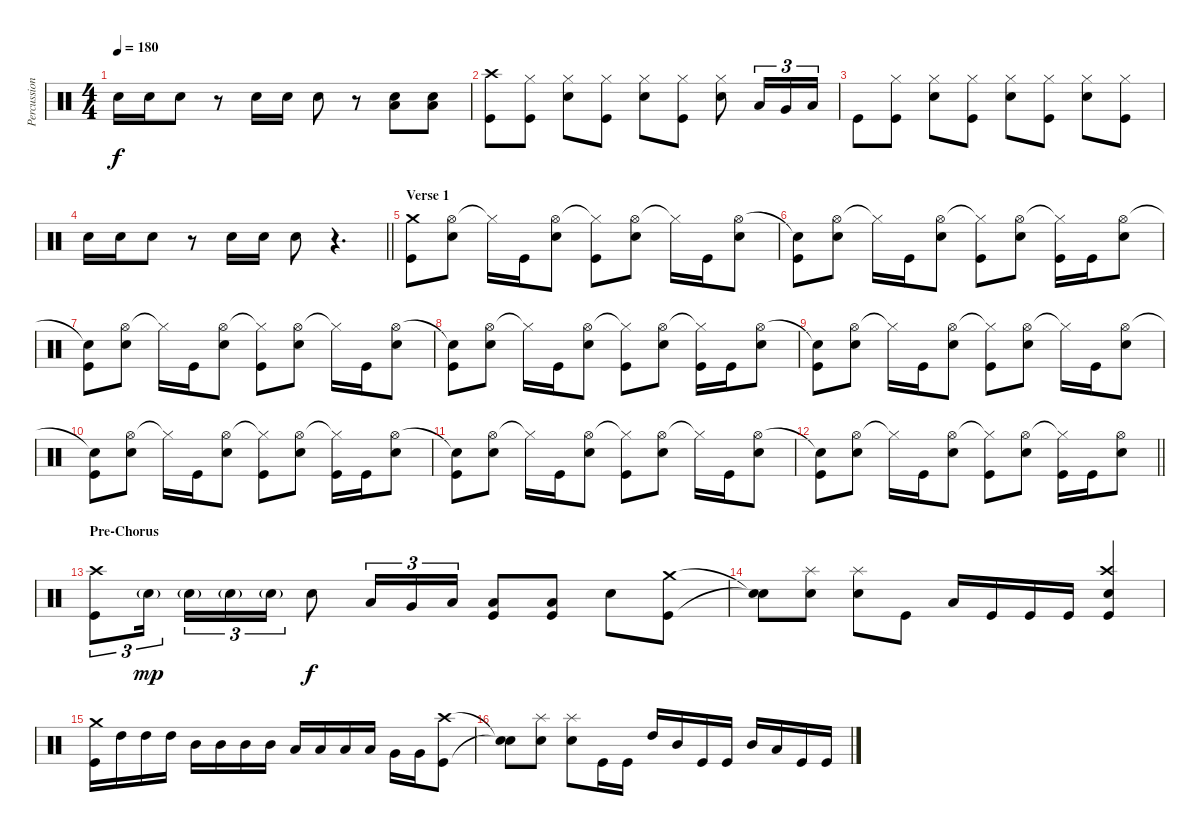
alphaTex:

\track ("Percussion" "Percussion") {instrument percussion}
\staff {score}
\articulation defaults
\ts (4 4)
\tempo 180
\clef neutral
\ks c "Electric Snare (hit)".16{dy f} "Electric Snare (hit)".16 "Electric Snare (hit)".8
r.8 "Electric Snare (hit)".16 "Electric Snare (hit)".16 "Electric Snare (hit)".8 r.8 ("Low Floor Tom (hit)" "Electric Snare (hit)").8 ("Low Floor Tom (hit)" "Electric Snare (hit)").8 |
("Crash high (hit)" "Kick (hit)").8 ("Hi-Hat (closed)" "Kick (hit)").8 ("Hi-Hat (closed)" "Electric Snare (hit)").8 ("Hi-Hat (closed)" "Kick (hit)").8 ("Hi-Hat (closed)" "Electric Snare (hit)").8 ("Hi-Hat (closed)" "Kick (hit)").8 ("Hi-Hat (closed)" "Electric Snare (hit)").8 "Low Tom (hit)".16{tu (3 2)} "Very Low Tom (hit)".16{tu (3 2)} "Low Floor Tom (hit)".16{tu (3 2)} |
"Kick (hit)".8 ("Hi-Hat (closed)" "Kick (hit)").8 ("Hi-Hat (closed)" "Electric Snare (hit)").8 ("Hi-Hat (closed)" "Kick (hit)").8 ("Hi-Hat (closed)" "Electric Snare (hit)").8 ("Hi-Hat (closed)" "Kick (hit)").8 ("Hi-Hat (closed)" "Electric Snare (hit)").8 ("Hi-Hat (closed)" "Kick (hit)").8 |
\barLineRight lightlight "Electric Snare (hit)".16 "Electric Snare (hit)".16 "Electric Snare (hit)".8
r.8 "Electric Snare (hit)".16 "Electric Snare (hit)".16 "Electric Snare (hit)".8 r.4{d} |
\section ("" "Verse 1")
("Crash medium (hit)" "Kick (hit)").8 ("Hi-Hat (open)" "Electric Snare (hit)").8 "Hi-Hat (closed)"{t}.16 "Kick (hit)".16 ("Hi-Hat (open)" "Electric Snare (hit)").8 ("Hi-Hat (closed)"{t} "Kick (hit)").8 ("Hi-Hat (open)" "Electric Snare (hit)").8 "Hi-Hat (closed)"{t}.16 "Kick (hit)".16 ("Hi-Hat (open)" "Electric Snare (hit)").8 |
("Snare (hit)"{t} "Kick (hit)").8 ("Hi-Hat (open)" "Electric Snare (hit)").8 "Hi-Hat (closed)"{t}.16 "Kick (hit)".16 ("Hi-Hat (open)" "Electric Snare (hit)").8 ("Hi-Hat (closed)"{t} "Kick (hit)").8 ("Hi-Hat (open)" "Electric Snare (hit)").8 ("Hi-Hat (closed)"{t} "Kick (hit)").16 "Kick (hit)".16 ("Hi-Hat (open)" "Electric Snare (hit)").8 |
("Snare (hit)"{t} "Kick (hit)").8 ("Hi-Hat (open)" "Electric Snare (hit)").8 "Hi-Hat (closed)"{t}.16 "Kick (hit)".16 ("Hi-Hat (open)" "Electric Snare (hit)").8 ("Hi-Hat (closed)"{t} "Kick (hit)").8 ("Hi-Hat (open)" "Electric Snare (hit)").8 "Hi-Hat (closed)"{t}.16 "Kick (hit)".16 ("Hi-Hat (open)" "Electric Snare (hit)").8 |
("Snare (hit)"{t} "Kick (hit)").8 ("Hi-Hat (open)" "Electric Snare (hit)").8 "Hi-Hat (closed)"{t}.16 "Kick (hit)".16 ("Hi-Hat (open)" "Electric Snare (hit)").8 ("Hi-Hat (closed)"{t} "Kick (hit)").8 ("Hi-Hat (open)" "Electric Snare (hit)").8 ("Hi-Hat (closed)"{t} "Kick (hit)").16 "Kick (hit)".16 ("Hi-Hat (open)" "Electric Snare (hit)").8 |
("Snare (hit)"{t} "Kick (hit)").8 ("Hi-Hat (open)" "Electric Snare (hit)").8 "Hi-Hat (closed)"{t}.16 "Kick (hit)".16 ("Hi-Hat (open)" "Electric Snare (hit)").8 ("Hi-Hat (closed)"{t} "Kick (hit)").8 ("Hi-Hat (open)" "Electric Snare (hit)").8 "Hi-Hat (closed)"{t}.16 "Kick (hit)".16 ("Hi-Hat (open)" "Electric Snare (hit)").8 |
("Snare (hit)"{t} "Kick (hit)").8 ("Hi-Hat (open)" "Electric Snare (hit)").8 "Hi-Hat (closed)"{t}.16 "Kick (hit)".16 ("Hi-Hat (open)" "Electric Snare (hit)").8 ("Hi-Hat (closed)"{t} "Kick (hit)").8 ("Hi-Hat (open)" "Electric Snare (hit)").8 ("Hi-Hat (closed)"{t} "Kick (hit)").16 "Kick (hit)".16 ("Hi-Hat (open)" "Electric Snare (hit)").8 |
("Snare (hit)"{t} "Kick (hit)").8 ("Hi-Hat (open)" "Electric Snare (hit)").8 "Hi-Hat (closed)"{t}.16 "Kick (hit)".16 ("Hi-Hat (open)" "Electric Snare (hit)").8 ("Hi-Hat (closed)"{t} "Kick (hit)").8 ("Hi-Hat (open)" "Electric Snare (hit)").8 "Hi-Hat (closed)"{t}.16 "Kick (hit)".16 ("Hi-Hat (open)" "Electric Snare (hit)").8 |
\barLineRight lightlight
("Snare (hit)"{t} "Kick (hit)").8 ("Hi-Hat (open)" "Electric Snare (hit)").8 "Hi-Hat (closed)"{t}.16 "Kick (hit)".16 ("Hi-Hat (open)" "Electric Snare (hit)").8 ("Hi-Hat (closed)"{t} "Kick (hit)").8 ("Hi-Hat (open)" "Electric Snare (hit)").8 ("Hi-Hat (closed)"{t} "Kick (hit)").16 "Kick (hit)".16 ("Hi-Hat (open)" "Electric Snare (hit)").8 |
\section ("" "Pre-Chorus")
("Crash high (hit)" "Kick (hit)").8{tu (3 2)} "Electric Snare (hit)"{g}.16{tu (3 2) dy mp beam splitsecondary} "Electric Snare (hit)"{g}.16{tu (3 2)} "Electric Snare (hit)"{g}.16{tu (3 2)} "Electric Snare (hit)"{g}.16{tu (3 2)} "Electric Snare (hit)".8{dy f} "Low Tom (hit)".16{tu (3 2)} "Very Low Tom (hit)".16{tu (3 2)} "Low Floor Tom (hit)".16{tu (3 2)} ("Low Floor Tom (hit)" "Kick (hit)").8 ("Low Floor Tom (hit)" "Kick (hit)").8 "Electric Snare (hit)".8 ("Crash medium (hit)" "Kick (hit)").8 |
("Snare (hit)"{t} "Snare (hit)"{t}).8 ("Splash (hit)" "Electric Snare (hit)").8 ("Splash (hit)" "Electric Snare (hit)").8 "Kick (hit)".8 "Low Floor Tom (hit)".16 "Kick (hit)".16 "Kick (hit)".16 "Kick (hit)".16 ("Crash high (hit)" "Electric Snare (hit)" "Kick (hit)").4 |
("Crash medium (hit)" "Kick (hit)").16 "High Tom (hit)".16 "High Tom (hit)".16 "High Tom (hit)".16 "Mid Tom (hit)".16 "Mid Tom (hit)".16 "Mid Tom (hit)".16 "Mid Tom (hit)".16 "Low Tom (hit)".16 "Low Tom (hit)".16 "Low Tom (hit)".16 "Low Tom (hit)".16 "Very Low Tom (hit)".16 "Very Low Tom (hit)".16 ("Crash high (hit)" "Kick (hit)").8 |
("Snare (hit)"{t} "Snare (hit)"{t}).8 ("Splash (hit)" "Electric Snare (hit)").8 ("Splash (hit)" "Electric Snare (hit)").8 "Kick (hit)".16 "Kick (hit)".16 "High Tom (hit)".16 "Mid Tom (hit)".16 "Kick (hit)".16 "Kick (hit)".16 "Mid Tom (hit)".16 "Low Tom (hit)".16 "Kick (hit)".16 "Kick (hit)".16
